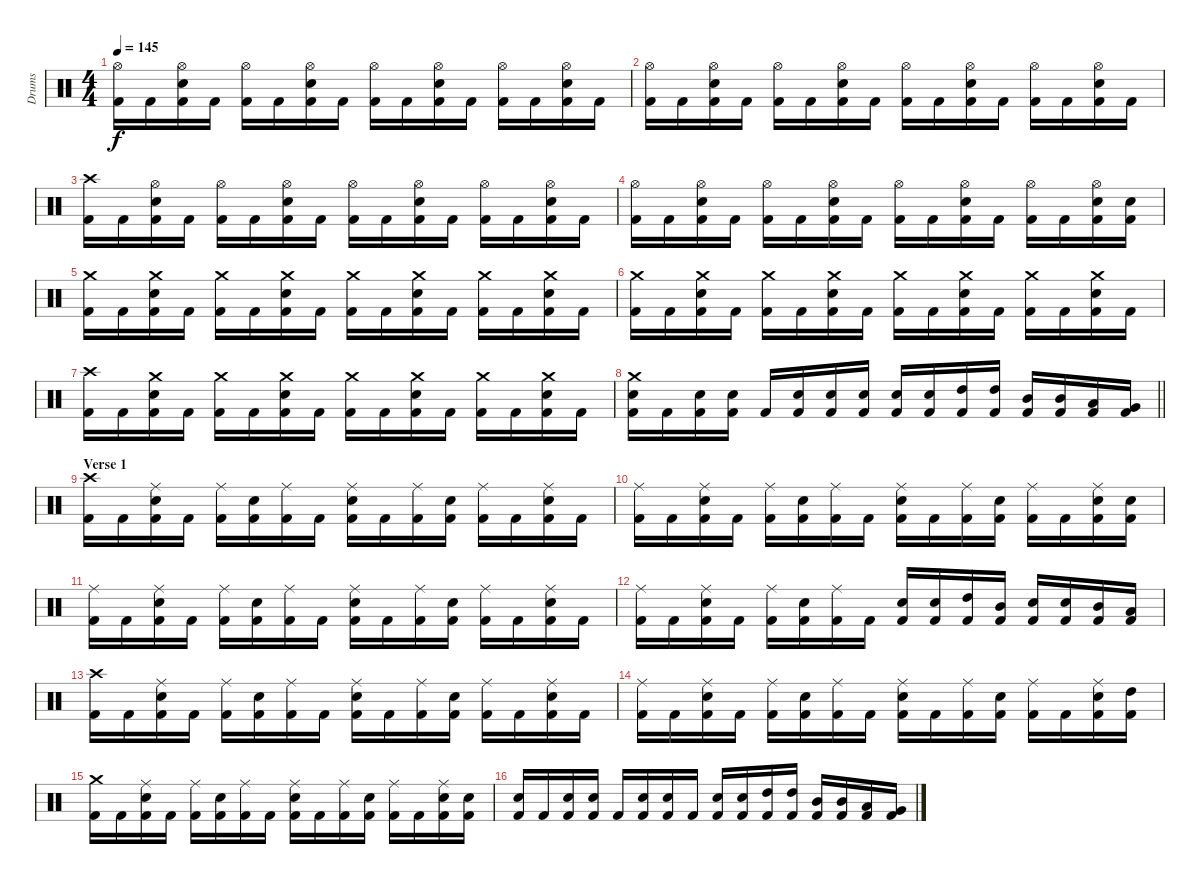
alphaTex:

\track ("Drums" "Drums") {instrument percussion}
\staff {score}
\articulation defaults
\ts (4 4)
\tempo 145
\clef neutral
\ks c
("Hi-Hat (open)" "Kick (hit) 2").16{dy f} "Kick (hit) 2".16 ("Hi-Hat (open)" "Electric Snare (hit)" "Kick (hit) 2").16 "Kick (hit) 2".16 ("Hi-Hat (open)" "Kick (hit) 2").16 "Kick (hit) 2".16 ("Hi-Hat (open)" "Electric Snare (hit)" "Kick (hit) 2").16 "Kick (hit) 2".16 ("Hi-Hat (open)" "Kick (hit) 2").16 "Kick (hit) 2".16 ("Hi-Hat (open)" "Electric Snare (hit)" "Kick (hit) 2").16 "Kick (hit) 2".16 ("Hi-Hat (open)" "Kick (hit) 2").16 "Kick (hit) 2".16 ("Hi-Hat (open)" "Electric Snare (hit)" "Kick (hit) 2").16 "Kick (hit) 2".16 |
("Hi-Hat (open)" "Kick (hit) 2").16 "Kick (hit) 2".16 ("Hi-Hat (open)" "Electric Snare (hit)" "Kick (hit) 2").16 "Kick (hit) 2".16 ("Hi-Hat (open)" "Kick (hit) 2").16 "Kick (hit) 2".16 ("Hi-Hat (open)" "Electric Snare (hit)" "Kick (hit) 2").16 "Kick (hit) 2".16 ("Hi-Hat (open)" "Kick (hit) 2").16 "Kick (hit) 2".16 ("Hi-Hat (open)" "Electric Snare (hit)" "Kick (hit) 2").16 "Kick (hit) 2".16 ("Hi-Hat (open)" "Kick (hit) 2").16 "Kick (hit) 2".16 ("Hi-Hat (open)" "Electric Snare (hit)" "Kick (hit) 2").16 "Kick (hit) 2".16 |
("Crash high (hit)" "Kick (hit) 2").16 "Kick (hit) 2".16 ("Hi-Hat (open)" "Electric Snare (hit)" "Kick (hit) 2").16 "Kick (hit) 2".16 ("Hi-Hat (open)" "Kick (hit) 2").16 "Kick (hit) 2".16 ("Hi-Hat (open)" "Electric Snare (hit)" "Kick (hit) 2").16 "Kick (hit) 2".16 ("Hi-Hat (open)" "Kick (hit) 2").16 "Kick (hit) 2".16 ("Hi-Hat (open)" "Electric Snare (hit)" "Kick (hit) 2").16 "Kick (hit) 2".16 ("Hi-Hat (open)" "Kick (hit) 2").16 "Kick (hit) 2".16 ("Hi-Hat (open)" "Electric Snare (hit)" "Kick (hit) 2").16 "Kick (hit) 2".16 |
("Hi-Hat (open)" "Kick (hit) 2").16 "Kick (hit) 2".16 ("Hi-Hat (open)" "Electric Snare (hit)" "Kick (hit) 2").16 "Kick (hit) 2".16 ("Hi-Hat (open)" "Kick (hit) 2").16 "Kick (hit) 2".16 ("Hi-Hat (open)" "Electric Snare (hit)" "Kick (hit) 2").16 "Kick (hit) 2".16 ("Hi-Hat (open)" "Kick (hit) 2").16 "Kick (hit) 2".16 ("Hi-Hat (open)" "Electric Snare (hit)" "Kick (hit) 2").16 "Kick (hit) 2".16 ("Hi-Hat (open)" "Kick (hit) 2").16 "Kick (hit) 2".16 ("Hi-Hat (open)" "Electric Snare (hit)" "Kick (hit) 2").16 ("Electric Snare (hit)" "Kick (hit) 2").16 |
("Crash medium (hit)" "Kick (hit) 2").16 "Kick (hit) 2".16 ("Crash medium (hit)" "Electric Snare (hit)" "Kick (hit) 2").16 "Kick (hit) 2".16 ("Crash medium (hit)" "Kick (hit) 2").16 "Kick (hit) 2".16 ("Crash medium (hit)" "Electric Snare (hit)" "Kick (hit) 2").16 "Kick (hit) 2".16 ("Crash medium (hit)" "Kick (hit) 2").16 "Kick (hit) 2".16 ("Crash medium (hit)" "Electric Snare (hit)" "Kick (hit) 2").16 "Kick (hit) 2".16 ("Crash medium (hit)" "Kick (hit) 2").16 "Kick (hit) 2".16 ("Crash medium (hit)" "Electric Snare (hit)" "Kick (hit) 2").16 "Kick (hit) 2".16 |
("Crash medium (hit)" "Kick (hit) 2").16 "Kick (hit) 2".16 ("Crash medium (hit)" "Electric Snare (hit)" "Kick (hit) 2").16 "Kick (hit) 2".16 ("Crash medium (hit)" "Kick (hit) 2").16 "Kick (hit) 2".16 ("Crash medium (hit)" "Electric Snare (hit)" "Kick (hit) 2").16 "Kick (hit) 2".16 ("Crash medium (hit)" "Kick (hit) 2").16 "Kick (hit) 2".16 ("Crash medium (hit)" "Electric Snare (hit)" "Kick (hit) 2").16 "Kick (hit) 2".16 ("Crash medium (hit)" "Kick (hit) 2").16 "Kick (hit) 2".16 ("Crash medium (hit)" "Electric Snare (hit)" "Kick (hit) 2").16 "Kick (hit) 2".16 |
("Crash high (hit)" "Kick (hit) 2").16 "Kick (hit) 2".16 ("Crash medium (hit)" "Electric Snare (hit)" "Kick (hit) 2").16 "Kick (hit) 2".16 ("Crash medium (hit)" "Kick (hit) 2").16 "Kick (hit) 2".16 ("Crash medium (hit)" "Electric Snare (hit)" "Kick (hit) 2").16 "Kick (hit) 2".16 ("Crash medium (hit)" "Kick (hit) 2").16 "Kick (hit) 2".16 ("Crash medium (hit)" "Electric Snare (hit)" "Kick (hit) 2").16 "Kick (hit) 2".16 ("Crash medium (hit)" "Kick (hit) 2").16 "Kick (hit) 2".16 ("Crash medium (hit)" "Electric Snare (hit)" "Kick (hit) 2").16 "Kick (hit) 2".16 |
\barLineRight lightlight
("Crash medium (hit)" "Electric Snare (hit)" "Kick (hit) 2").16 "Kick (hit) 2".16 ("Electric Snare (hit)" "Kick (hit) 2").16 ("Electric Snare (hit)" "Kick (hit) 2").16 "Kick (hit) 2".16 ("Electric Snare (hit)" "Kick (hit) 2").16 ("Electric Snare (hit)" "Kick (hit) 2").16 ("Electric Snare (hit)" "Kick (hit) 2").16 ("Electric Snare (hit)" "Kick (hit) 2").16 ("Electric Snare (hit)" "Kick (hit) 2").16 ("High Tom (hit)" "Kick (hit) 2").16 ("High Tom (hit)" "Kick (hit) 2").16 ("Mid Tom (hit)" "Kick (hit) 2").16 ("Mid Tom (hit)" "Kick (hit) 2").16 ("Low Tom (hit)" "Kick (hit) 2").16 ("Very Low Tom (hit)" "Kick (hit) 2").16 |
\section ("" "Verse 1")
("Crash high (hit)" "Kick (hit) 2").16 "Kick (hit) 2".16 ("Ride (middle)" "Electric Snare (hit)" "Kick (hit) 2").16 "Kick (hit) 2".16 ("Ride (middle)" "Kick (hit) 2").16 ("Electric Snare (hit)" "Kick (hit) 2").16 ("Ride (middle)" "Kick (hit) 2").16 "Kick (hit) 2".16 ("Ride (middle)" "Electric Snare (hit)" "Kick (hit) 2").16 "Kick (hit) 2".16 ("Ride (middle)" "Kick (hit) 2").16 ("Electric Snare (hit)" "Kick (hit) 2").16 ("Ride (middle)" "Kick (hit) 2").16 "Kick (hit) 2".16 ("Ride (middle)" "Electric Snare (hit)" "Kick (hit) 2").16 "Kick (hit) 2".16 |
("Ride (middle)" "Kick (hit) 2").16 "Kick (hit) 2".16 ("Ride (middle)" "Electric Snare (hit)" "Kick (hit) 2").16 "Kick (hit) 2".16 ("Ride (middle)" "Kick (hit) 2").16 ("Electric Snare (hit)" "Kick (hit) 2").16 ("Ride (middle)" "Kick (hit) 2").16 "Kick (hit) 2".16 ("Ride (middle)" "Electric Snare (hit)" "Kick (hit) 2").16 "Kick (hit) 2".16 ("Ride (middle)" "Kick (hit) 2").16 ("Electric Snare (hit)" "Kick (hit) 2").16 ("Ride (middle)" "Kick (hit) 2").16 "Kick (hit) 2".16 ("Ride (middle)" "Electric Snare (hit)" "Kick (hit) 2").16 ("Electric Snare (hit)" "Kick (hit) 2").16 |
("Ride (middle)" "Kick (hit) 2").16 "Kick (hit) 2".16 ("Ride (middle)" "Electric Snare (hit)" "Kick (hit) 2").16 "Kick (hit) 2".16 ("Ride (middle)" "Kick (hit) 2").16 ("Electric Snare (hit)" "Kick (hit) 2").16 ("Ride (middle)" "Kick (hit) 2").16 "Kick (hit) 2".16 ("Ride (middle)" "Electric Snare (hit)" "Kick (hit) 2").16 "Kick (hit) 2".16 ("Ride (middle)" "Kick (hit) 2").16 ("Electric Snare (hit)" "Kick (hit) 2").16 ("Ride (middle)" "Kick (hit) 2").16 "Kick (hit) 2".16 ("Ride (middle)" "Electric Snare (hit)" "Kick (hit) 2").16 "Kick (hit) 2".16 |
("Ride (middle)" "Kick (hit) 2").16 "Kick (hit) 2".16 ("Ride (middle)" "Electric Snare (hit)" "Kick (hit) 2").16 "Kick (hit) 2".16 ("Ride (middle)" "Kick (hit) 2").16 ("Electric Snare (hit)" "Kick (hit) 2").16 ("Ride (middle)" "Kick (hit) 2").16 "Kick (hit) 2".16 ("Electric Snare (hit)" "Kick (hit) 2").16 ("Electric Snare (hit)" "Kick (hit) 2").16 ("High Tom (hit)" "Kick (hit) 2").16 ("Mid Tom (hit)" "Kick (hit) 2").16 ("Electric Snare (hit)" "Kick (hit) 2").16 ("Electric Snare (hit)" "Kick (hit) 2").16 ("Mid Tom (hit)" "Kick (hit) 2").16 ("Low Tom (hit)" "Kick (hit) 2").16 |
("Crash high (hit)" "Kick (hit) 2").16 "Kick (hit) 2".16 ("Ride (middle)" "Electric Snare (hit)" "Kick (hit) 2").16 "Kick (hit) 2".16 ("Ride (middle)" "Kick (hit) 2").16 ("Electric Snare (hit)" "Kick (hit) 2").16 ("Ride (middle)" "Kick (hit) 2").16 "Kick (hit) 2".16 ("Ride (middle)" "Electric Snare (hit)" "Kick (hit) 2").16 "Kick (hit) 2".16 ("Ride (middle)" "Kick (hit) 2").16 ("Electric Snare (hit)" "Kick (hit) 2").16 ("Ride (middle)" "Kick (hit) 2").16 "Kick (hit) 2".16 ("Ride (middle)" "Electric Snare (hit)" "Kick (hit) 2").16 "Kick (hit) 2".16 |
("Ride (middle)" "Kick (hit) 2").16 "Kick (hit) 2".16 ("Ride (middle)" "Electric Snare (hit)" "Kick (hit) 2").16 "Kick (hit) 2".16 ("Ride (middle)" "Kick (hit) 2").16 ("Electric Snare (hit)" "Kick (hit) 2").16 ("Ride (middle)" "Kick (hit) 2").16 "Kick (hit) 2".16 ("Ride (middle)" "Electric Snare (hit)" "Kick (hit) 2").16 "Kick (hit) 2".16 ("Ride (middle)" "Kick (hit) 2").16 ("Electric Snare (hit)" "Kick (hit) 2").16 ("Ride (middle)" "Kick (hit) 2").16 "Kick (hit) 2".16 ("Ride (middle)" "Electric Snare (hit)" "Kick (hit) 2").16 ("High Tom (hit)" "Kick (hit) 2").16 |
("Crash medium (hit)" "Kick (hit) 2").16 "Kick (hit) 2".16 ("Ride (middle)" "Electric Snare (hit)" "Kick (hit) 2").16 "Kick (hit) 2".16 ("Ride (middle)" "Kick (hit) 2").16 ("Electric Snare (hit)" "Kick (hit) 2").16 ("Ride (middle)" "Kick (hit) 2").16 "Kick (hit) 2".16 ("Ride (middle)" "Electric Snare (hit)" "Kick (hit) 2").16 "Kick (hit) 2".16 ("Ride (middle)" "Kick (hit) 2").16 ("Electric Snare (hit)" "Kick (hit) 2").16 ("Ride (middle)" "Kick (hit) 2").16 "Kick (hit) 2".16 ("Ride (middle)" "Electric Snare (hit)" "Kick (hit) 2").16 ("Electric Snare (hit)" "Kick (hit) 2").16 |
("Electric Snare (hit)" "Kick (hit) 2").16 "Kick (hit) 2".16 ("Electric Snare (hit)" "Kick (hit) 2").16 ("Electric Snare (hit)" "Kick (hit) 2").16 "Kick (hit) 2".16 ("Electric Snare (hit)" "Kick (hit) 2").16 ("Electric Snare (hit)" "Kick (hit) 2").16 "Kick (hit) 2".16 ("Electric Snare (hit)" "Kick (hit) 2").16 ("Electric Snare (hit)" "Kick (hit) 2").16 ("High Tom (hit)" "Kick (hit) 2").16 ("High Tom (hit)" "Kick (hit) 2").16 ("Mid Tom (hit)" "Kick (hit) 2").16 ("Mid Tom (hit)" "Kick (hit) 2").16 ("Low Tom (hit)" "Kick (hit) 2").16 ("Very Low Tom (hit)" "Kick (hit) 2").16
